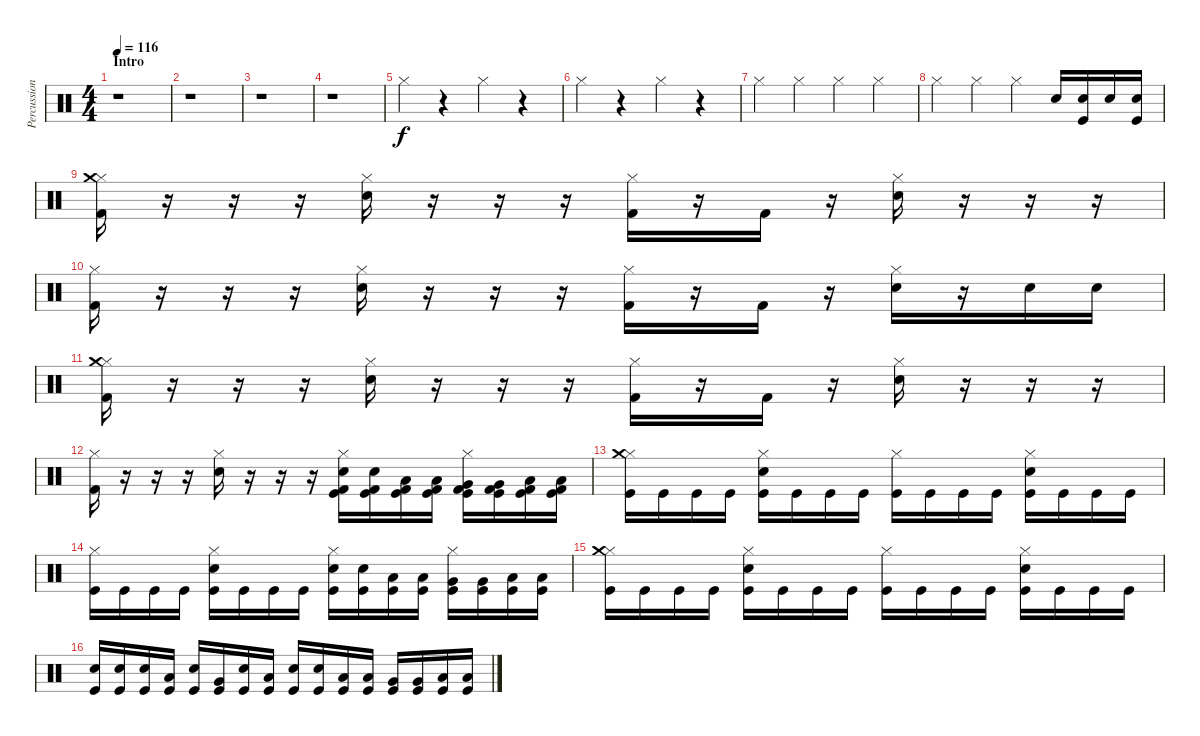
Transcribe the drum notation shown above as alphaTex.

\track ("Percussion" "Percussion") {instrument percussion}
\staff {score}
\articulation defaults
\ts (4 4)
\section ("" "Intro")
\tempo 116
\clef neutral
\ks c
r.1{dy f} |
r.1 |
r.1 |
r.1 |
"Hi-Hat (closed)".4 r.4 "Hi-Hat (closed)".4 r.4 |
"Hi-Hat (closed)".4 r.4 "Hi-Hat (closed)".4 r.4 |
"Hi-Hat (closed)".4 "Hi-Hat (closed)".4 "Hi-Hat (closed)".4 "Hi-Hat (closed)".4 |
"Hi-Hat (closed)".4 "Hi-Hat (closed)".4 "Hi-Hat (closed)".4 "Snare (hit) 2".16 ("Kick (hit)" "Snare (hit) 2").16 "Snare (hit) 2".16 ("Kick (hit)" "Snare (hit) 2").16 |
("Hi-Hat (closed)" "Crash medium (hit)" "Kick (hit) 2").16 r.16 r.16 r.16 ("Hi-Hat (closed)" "Electric Snare (hit)").16 r.16 r.16 r.16 ("Hi-Hat (closed)" "Kick (hit) 2").16 r.16 "Kick (hit) 2".16 r.16 ("Hi-Hat (closed)" "Electric Snare (hit)").16 r.16 r.16 r.16 |
("Hi-Hat (closed)" "Kick (hit) 2").16 r.16 r.16 r.16 ("Hi-Hat (closed)" "Electric Snare (hit)").16 r.16 r.16 r.16 ("Hi-Hat (closed)" "Kick (hit) 2").16 r.16 "Kick (hit) 2".16 r.16 ("Hi-Hat (closed)" "Electric Snare (hit)").16 r.16 "Snare (hit) 2".16 "Snare (hit) 2".16 |
("Hi-Hat (closed)" "Crash medium (hit)" "Kick (hit) 2").16 r.16 r.16 r.16 ("Hi-Hat (closed)" "Electric Snare (hit)").16 r.16 r.16 r.16 ("Hi-Hat (closed)" "Kick (hit) 2").16 r.16 "Kick (hit) 2".16 r.16 ("Hi-Hat (closed)" "Electric Snare (hit)").16 r.16 r.16 r.16 |
("Hi-Hat (closed)" "Kick (hit) 2").16 r.16 r.16 r.16 ("Hi-Hat (closed)" "Snare (hit) 2").16 r.16 r.16 r.16 ("Hi-Hat (closed)" "Snare (hit) 2" "Kick (hit) 2" "Kick (hit)").16 ("Snare (hit) 2" "Kick (hit) 2" "Kick (hit)").16 ("Low Tom (hit)" "Kick (hit) 2" "Kick (hit)").16 ("Low Tom (hit)" "Kick (hit) 2" "Kick (hit)").16 ("Hi-Hat (closed)" "Very Low Tom (hit)" "Kick (hit) 2" "Kick (hit)").16 ("Very Low Tom (hit)" "Kick (hit) 2" "Kick (hit)").16 ("Low Floor Tom (hit)" "Kick (hit) 2" "Kick (hit)").16 ("Low Floor Tom (hit)" "Kick (hit) 2" "Kick (hit)").16 |
("Hi-Hat (closed)" "Crash medium (hit)" "Kick (hit)").16 "Kick (hit)".16 "Kick (hit)".16 "Kick (hit)".16 ("Hi-Hat (closed)" "Snare (hit) 2" "Kick (hit)").16 "Kick (hit)".16 "Kick (hit)".16 "Kick (hit)".16 ("Hi-Hat (closed)" "Kick (hit)").16 "Kick (hit)".16 "Kick (hit)".16 "Kick (hit)".16 ("Hi-Hat (closed)" "Snare (hit) 2" "Kick (hit)").16 "Kick (hit)".16 "Kick (hit)".16 "Kick (hit)".16 |
("Hi-Hat (closed)" "Kick (hit)").16 "Kick (hit)".16 "Kick (hit)".16 "Kick (hit)".16 ("Hi-Hat (closed)" "Snare (hit) 2" "Kick (hit)").16 "Kick (hit)".16 "Kick (hit)".16 "Kick (hit)".16 ("Hi-Hat (closed)" "Snare (hit) 2" "Kick (hit)").16 ("Snare (hit) 2" "Kick (hit)").16 ("Low Tom (hit)" "Kick (hit)").16 ("Low Tom (hit)" "Kick (hit)").16 ("Hi-Hat (closed)" "Very Low Tom (hit)" "Kick (hit)").16 ("Very Low Tom (hit)" "Kick (hit)").16 ("Low Floor Tom (hit)" "Kick (hit)").16 ("Low Floor Tom (hit)" "Kick (hit)").16 |
("Hi-Hat (closed)" "Crash medium (hit)" "Kick (hit)").16 "Kick (hit)".16 "Kick (hit)".16 "Kick (hit)".16 ("Hi-Hat (closed)" "Snare (hit) 2" "Kick (hit)").16 "Kick (hit)".16 "Kick (hit)".16 "Kick (hit)".16 ("Hi-Hat (closed)" "Kick (hit)").16 "Kick (hit)".16 "Kick (hit)".16 "Kick (hit)".16 ("Hi-Hat (closed)" "Snare (hit) 2" "Kick (hit)").16 "Kick (hit)".16 "Kick (hit)".16 "Kick (hit)".16 |
("Snare (hit) 2" "Kick (hit)").16 ("Snare (hit) 2" "Kick (hit)").16 ("Snare (hit) 2" "Kick (hit)").16 ("Low Tom (hit)" "Kick (hit)").16 ("Snare (hit) 2" "Kick (hit)").16 ("Very Low Tom (hit)" "Kick (hit)").16 ("Snare (hit) 2" "Kick (hit)").16 ("Low Floor Tom (hit)" "Kick (hit)").16 ("Snare (hit) 2" "Kick (hit)").16 ("Snare (hit) 2" "Kick (hit)").16 ("Low Tom (hit)" "Kick (hit)").16 ("Low Tom (hit)" "Kick (hit)").16 ("Very Low Tom (hit)" "Kick (hit)").16 ("Very Low Tom (hit)" "Kick (hit)").16 ("Low Floor Tom (hit)" "Kick (hit)").16 ("Low Floor Tom (hit)" "Kick (hit)").16
